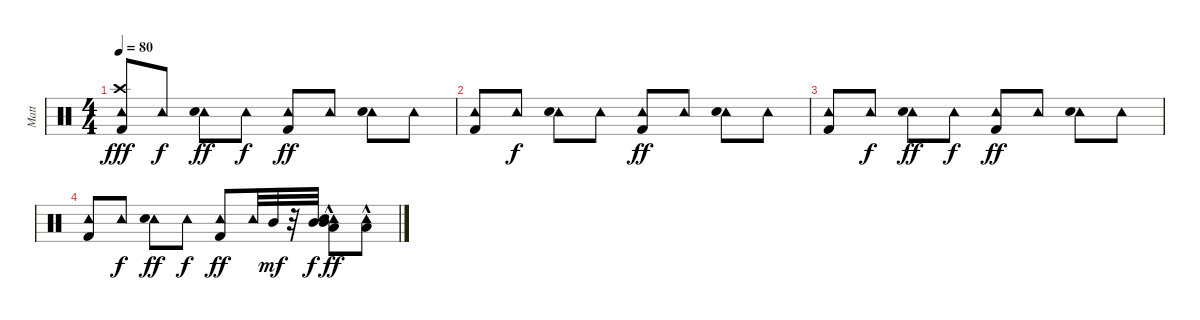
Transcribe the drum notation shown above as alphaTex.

\track ("Matt" "Matt") {instrument percussion}
\staff {score}
\articulation defaults
\ts (4 4)
\tempo 80
\clef neutral
\ks c
("Kick (hit) 2" "Crash high (hit)" "Tambourine (hit)").8{dy fff volume 13} "Tambourine (hit)".8{dy f} ("Tambourine (hit)" "Electric Snare (hit)").8{dy ff} "Tambourine (hit)".8{dy f} ("Kick (hit) 2" "Tambourine (hit)").8{dy ff} "Tambourine (hit)".8 ("Tambourine (hit)" "Electric Snare (hit)").8 "Tambourine (hit)".8 |
("Kick (hit) 2" "Tambourine (hit)").8 "Tambourine (hit)".8{dy f} ("Tambourine (hit)" "Electric Snare (hit)").8 "Tambourine (hit)".8 ("Kick (hit) 2" "Tambourine (hit)").8{dy ff} "Tambourine (hit)".8 ("Tambourine (hit)" "Electric Snare (hit)").8 "Tambourine (hit)".8 |
("Kick (hit) 2" "Tambourine (hit)").8 "Tambourine (hit)".8{dy f} ("Tambourine (hit)" "Electric Snare (hit)").8{dy ff} "Tambourine (hit)".8{dy f} ("Kick (hit) 2" "Tambourine (hit)").8{dy ff} "Tambourine (hit)".8 ("Tambourine (hit)" "Electric Snare (hit)").8 "Tambourine (hit)".8 |
("Kick (hit) 2" "Tambourine (hit)").8 "Tambourine (hit)".8{dy f} ("Tambourine (hit)" "Electric Snare (hit)").8{dy ff} "Tambourine (hit)".8{dy f} ("Kick (hit) 2" "Tambourine (hit)").8{dy ff} "Tambourine (hit)".32 "Mid Tom (hit)".32{dy mf} r.32 "Mid Tom (hit)".32{dy f} ("Mid Tom (hit)" "Low Tom (hit)"{hac} "Tambourine (hit)" "Electric Snare (hit)").8{dy ff} ("Low Tom (hit)"{hac} "Tambourine (hit)").8
